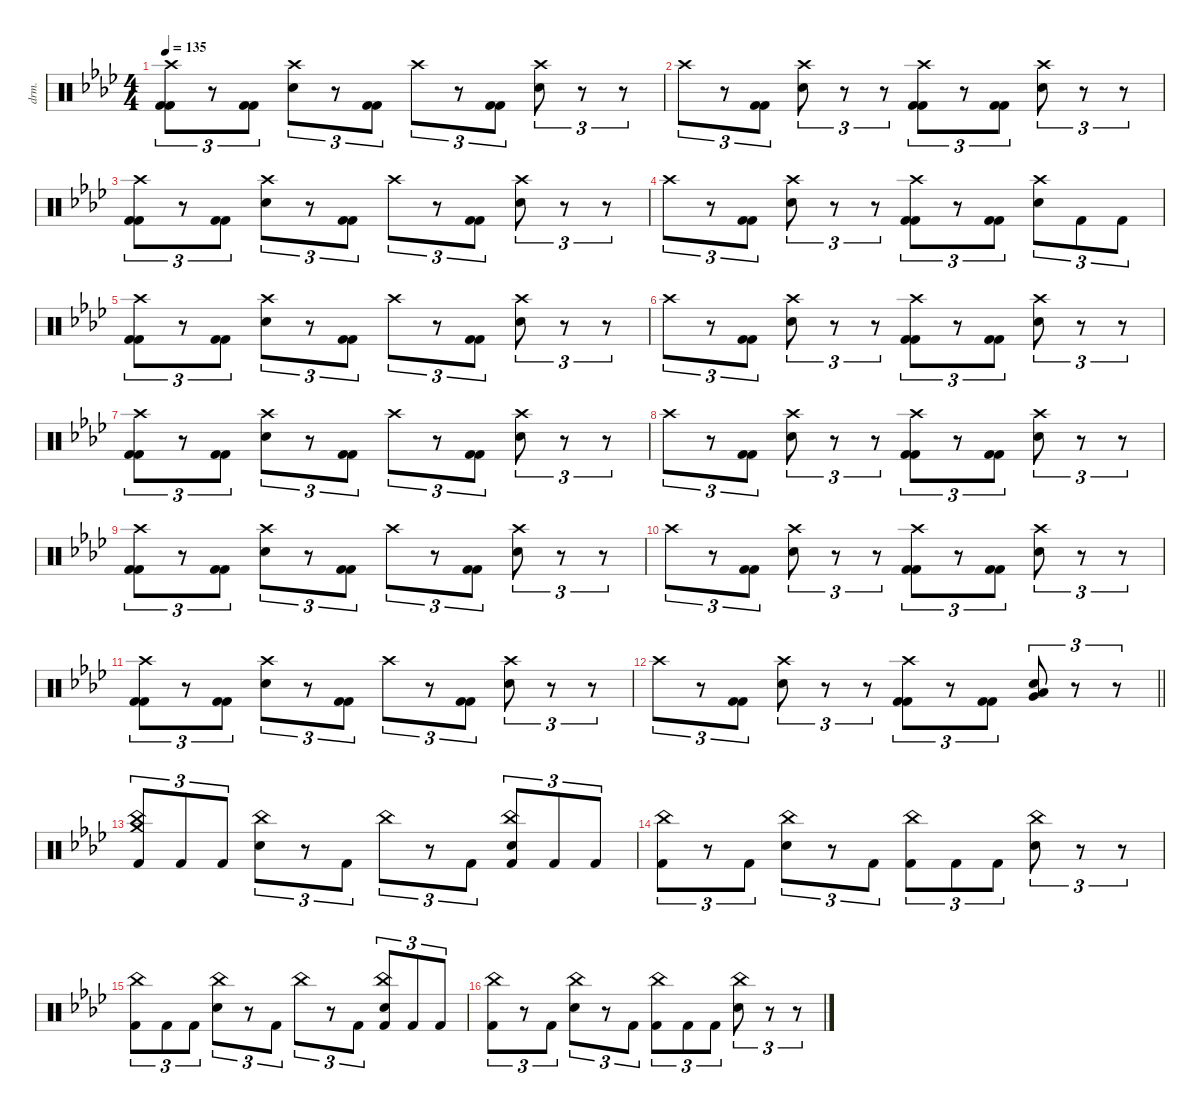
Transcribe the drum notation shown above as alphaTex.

\defaultSystemsLayout 4
\hideDynamics
\bracketExtendMode nobrackets
\otherSystemsTrackNameOrientation horizontal
\track ("Drums" "drm.") {defaultSystemsLayout 4 instrument percussion}
\staff {score}
\articulation defaults
\ts (4 4)
\tempo 135
\clef neutral
\ks ab
("Crash high (hit)"{acc forcenatural} "Kick (hit) 2"{acc forcenatural} "Kick (hit) 2"{acc forcenatural}).8{tu (3 2) dy f beam Down} r.8{tu (3 2) beam Down} ("Kick (hit) 2"{acc forcenatural} "Kick (hit) 2"{acc forcenatural}).8{tu (3 2) beam Down} ("Crash high (hit)"{acc forcenatural} "Snare (hit) 2"{acc forcenatural}).8{tu (3 2) beam Down} r.8{tu (3 2) beam Down} ("Kick (hit) 2"{acc forcenatural} "Kick (hit) 2"{acc forcenatural}).8{tu (3 2) beam Down} "Crash high (hit)"{acc forcenatural}.8{tu (3 2) beam Down} r.8{tu (3 2) beam Down} ("Kick (hit) 2"{acc forcenatural} "Kick (hit) 2"{acc forcenatural}).8{tu (3 2) beam Down} ("Crash high (hit)"{acc forcenatural} "Snare (hit) 2"{acc forcenatural}).8{tu (3 2) beam Down} r.8{tu (3 2) beam Down} r.8{tu (3 2) beam Down} |
"Crash high (hit)"{acc forcenatural}.8{tu (3 2) beam Down} r.8{tu (3 2) beam Down} ("Kick (hit) 2"{acc forcenatural} "Kick (hit) 2"{acc forcenatural}).8{tu (3 2) beam Down} ("Crash high (hit)"{acc forcenatural} "Snare (hit) 2"{acc forcenatural}).8{tu (3 2) beam Down} r.8{tu (3 2) beam Down} r.8{tu (3 2) beam Down} ("Crash high (hit)"{acc forcenatural} "Kick (hit) 2"{acc forcenatural} "Kick (hit) 2"{acc forcenatural}).8{tu (3 2) beam Down} r.8{tu (3 2) beam Down} ("Kick (hit) 2"{acc forcenatural} "Kick (hit) 2"{acc forcenatural}).8{tu (3 2) beam Down} ("Crash high (hit)"{acc forcenatural} "Snare (hit) 2"{acc forcenatural}).8{tu (3 2) beam Down} r.8{tu (3 2) beam Down} r.8{tu (3 2) beam Down} |
("Crash high (hit)"{acc forcenatural} "Kick (hit) 2"{acc forcenatural} "Kick (hit) 2"{acc forcenatural}).8{tu (3 2) beam Down} r.8{tu (3 2) beam Down} ("Kick (hit) 2"{acc forcenatural} "Kick (hit) 2"{acc forcenatural}).8{tu (3 2) beam Down} ("Crash high (hit)"{acc forcenatural} "Snare (hit) 2"{acc forcenatural}).8{tu (3 2) beam Down} r.8{tu (3 2) beam Down} ("Kick (hit) 2"{acc forcenatural} "Kick (hit) 2"{acc forcenatural}).8{tu (3 2) beam Down} "Crash high (hit)"{acc forcenatural}.8{tu (3 2) beam Down} r.8{tu (3 2) beam Down} ("Kick (hit) 2"{acc forcenatural} "Kick (hit) 2"{acc forcenatural}).8{tu (3 2) beam Down} ("Crash high (hit)"{acc forcenatural} "Snare (hit) 2"{acc forcenatural}).8{tu (3 2) beam Down} r.8{tu (3 2) beam Down} r.8{tu (3 2) beam Down} |
"Crash high (hit)"{acc forcenatural}.8{tu (3 2) beam Down} r.8{tu (3 2) beam Down} ("Kick (hit) 2"{acc forcenatural} "Kick (hit) 2"{acc forcenatural}).8{tu (3 2) beam Down} ("Crash high (hit)"{acc forcenatural} "Snare (hit) 2"{acc forcenatural}).8{tu (3 2) beam Down} r.8{tu (3 2) beam Down} r.8{tu (3 2) beam Down} ("Crash high (hit)"{acc forcenatural} "Kick (hit) 2"{acc forcenatural} "Kick (hit) 2"{acc forcenatural}).8{tu (3 2) beam Down} r.8{tu (3 2) beam Down} ("Kick (hit) 2"{acc forcenatural} "Kick (hit) 2"{acc forcenatural}).8{tu (3 2) beam Down} ("Crash high (hit)"{acc forcenatural} "Snare (hit) 2"{acc forcenatural}).8{tu (3 2) beam Down} "Kick (hit) 2"{acc forcenatural}.8{tu (3 2) beam Down} "Kick (hit) 2"{acc forcenatural}.8{tu (3 2) beam Down} |
("Crash high (hit)"{acc forcenatural} "Kick (hit) 2"{acc forcenatural} "Kick (hit) 2"{acc forcenatural}).8{tu (3 2) beam Down} r.8{tu (3 2) beam Down} ("Kick (hit) 2"{acc forcenatural} "Kick (hit) 2"{acc forcenatural}).8{tu (3 2) beam Down} ("Crash high (hit)"{acc forcenatural} "Snare (hit) 2"{acc forcenatural}).8{tu (3 2) beam Down} r.8{tu (3 2) beam Down} ("Kick (hit) 2"{acc forcenatural} "Kick (hit) 2"{acc forcenatural}).8{tu (3 2) beam Down} "Crash high (hit)"{acc forcenatural}.8{tu (3 2) beam Down} r.8{tu (3 2) beam Down} ("Kick (hit) 2"{acc forcenatural} "Kick (hit) 2"{acc forcenatural}).8{tu (3 2) beam Down} ("Crash high (hit)"{acc forcenatural} "Snare (hit) 2"{acc forcenatural}).8{tu (3 2) beam Down} r.8{tu (3 2) beam Down} r.8{tu (3 2) beam Down} |
"Crash high (hit)"{acc forcenatural}.8{tu (3 2) beam Down} r.8{tu (3 2) beam Down} ("Kick (hit) 2"{acc forcenatural} "Kick (hit) 2"{acc forcenatural}).8{tu (3 2) beam Down} ("Crash high (hit)"{acc forcenatural} "Snare (hit) 2"{acc forcenatural}).8{tu (3 2) beam Down} r.8{tu (3 2) beam Down} r.8{tu (3 2) beam Down} ("Crash high (hit)"{acc forcenatural} "Kick (hit) 2"{acc forcenatural} "Kick (hit) 2"{acc forcenatural}).8{tu (3 2) beam Down} r.8{tu (3 2) beam Down} ("Kick (hit) 2"{acc forcenatural} "Kick (hit) 2"{acc forcenatural}).8{tu (3 2) beam Down} ("Crash high (hit)"{acc forcenatural} "Snare (hit) 2"{acc forcenatural}).8{tu (3 2) beam Down} r.8{tu (3 2) beam Down} r.8{tu (3 2) beam Down} |
("Crash high (hit)"{acc forcenatural} "Kick (hit) 2"{acc forcenatural} "Kick (hit) 2"{acc forcenatural}).8{tu (3 2) beam Down} r.8{tu (3 2) beam Down} ("Kick (hit) 2"{acc forcenatural} "Kick (hit) 2"{acc forcenatural}).8{tu (3 2) beam Down} ("Crash high (hit)"{acc forcenatural} "Snare (hit) 2"{acc forcenatural}).8{tu (3 2) beam Down} r.8{tu (3 2) beam Down} ("Kick (hit) 2"{acc forcenatural} "Kick (hit) 2"{acc forcenatural}).8{tu (3 2) beam Down} "Crash high (hit)"{acc forcenatural}.8{tu (3 2) beam Down} r.8{tu (3 2) beam Down} ("Kick (hit) 2"{acc forcenatural} "Kick (hit) 2"{acc forcenatural}).8{tu (3 2) beam Down} ("Crash high (hit)"{acc forcenatural} "Snare (hit) 2"{acc forcenatural}).8{tu (3 2) beam Down} r.8{tu (3 2) beam Down} r.8{tu (3 2) beam Down} |
"Crash high (hit)"{acc forcenatural}.8{tu (3 2) beam Down} r.8{tu (3 2) beam Down} ("Kick (hit) 2"{acc forcenatural} "Kick (hit) 2"{acc forcenatural}).8{tu (3 2) beam Down} ("Crash high (hit)"{acc forcenatural} "Snare (hit) 2"{acc forcenatural}).8{tu (3 2) beam Down} r.8{tu (3 2) beam Down} r.8{tu (3 2) beam Down} ("Crash high (hit)"{acc forcenatural} "Kick (hit) 2"{acc forcenatural} "Kick (hit) 2"{acc forcenatural}).8{tu (3 2) beam Down} r.8{tu (3 2) beam Down} ("Kick (hit) 2"{acc forcenatural} "Kick (hit) 2"{acc forcenatural}).8{tu (3 2) beam Down} ("Crash high (hit)"{acc forcenatural} "Snare (hit) 2"{acc forcenatural}).8{tu (3 2) beam Down} r.8{tu (3 2) beam Down} r.8{tu (3 2) beam Down} |
("Crash high (hit)"{acc forcenatural} "Kick (hit) 2"{acc forcenatural} "Kick (hit) 2"{acc forcenatural}).8{tu (3 2) beam Down} r.8{tu (3 2) beam Down} ("Kick (hit) 2"{acc forcenatural} "Kick (hit) 2"{acc forcenatural}).8{tu (3 2) beam Down} ("Crash high (hit)"{acc forcenatural} "Snare (hit) 2"{acc forcenatural}).8{tu (3 2) beam Down} r.8{tu (3 2) beam Down} ("Kick (hit) 2"{acc forcenatural} "Kick (hit) 2"{acc forcenatural}).8{tu (3 2) beam Down} "Crash high (hit)"{acc forcenatural}.8{tu (3 2) beam Down} r.8{tu (3 2) beam Down} ("Kick (hit) 2"{acc forcenatural} "Kick (hit) 2"{acc forcenatural}).8{tu (3 2) beam Down} ("Crash high (hit)"{acc forcenatural} "Snare (hit) 2"{acc forcenatural}).8{tu (3 2) beam Down} r.8{tu (3 2) beam Down} r.8{tu (3 2) beam Down} |
"Crash high (hit)"{acc forcenatural}.8{tu (3 2) beam Down} r.8{tu (3 2) beam Down} ("Kick (hit) 2"{acc forcenatural} "Kick (hit) 2"{acc forcenatural}).8{tu (3 2) beam Down} ("Crash high (hit)"{acc forcenatural} "Snare (hit) 2"{acc forcenatural}).8{tu (3 2) beam Down} r.8{tu (3 2) beam Down} r.8{tu (3 2) beam Down} ("Crash high (hit)"{acc forcenatural} "Kick (hit) 2"{acc forcenatural} "Kick (hit) 2"{acc forcenatural}).8{tu (3 2) beam Down} r.8{tu (3 2) beam Down} ("Kick (hit) 2"{acc forcenatural} "Kick (hit) 2"{acc forcenatural}).8{tu (3 2) beam Down} ("Crash high (hit)"{acc forcenatural} "Snare (hit) 2"{acc forcenatural}).8{tu (3 2) beam Down} r.8{tu (3 2) beam Down} r.8{tu (3 2) beam Down} |
("Crash high (hit)"{acc forcenatural} "Kick (hit) 2"{acc forcenatural} "Kick (hit) 2"{acc forcenatural}).8{tu (3 2) beam Down} r.8{tu (3 2) beam Down} ("Kick (hit) 2"{acc forcenatural} "Kick (hit) 2"{acc forcenatural}).8{tu (3 2) beam Down} ("Crash high (hit)"{acc forcenatural} "Snare (hit) 2"{acc forcenatural}).8{tu (3 2) beam Down} r.8{tu (3 2) beam Down} ("Kick (hit) 2"{acc forcenatural} "Kick (hit) 2"{acc forcenatural}).8{tu (3 2) beam Down} "Crash high (hit)"{acc forcenatural}.8{tu (3 2) beam Down} r.8{tu (3 2) beam Down} ("Kick (hit) 2"{acc forcenatural} "Kick (hit) 2"{acc forcenatural}).8{tu (3 2) beam Down} ("Crash high (hit)"{acc forcenatural} "Snare (hit) 2"{acc forcenatural}).8{tu (3 2) beam Down} r.8{tu (3 2) beam Down} r.8{tu (3 2) beam Down} |
\barLineRight lightlight "Crash high (hit)"{acc forcenatural}.8{tu (3 2) beam Down}
r.8{tu (3 2) beam Down} ("Kick (hit) 2"{acc forcenatural} "Kick (hit) 2"{acc forcenatural}).8{tu (3 2) beam Down} ("Crash high (hit)"{acc forcenatural} "Snare (hit) 2"{acc forcenatural}).8{tu (3 2) beam Down} r.8{tu (3 2) beam Down} r.8{tu (3 2) beam Down} ("Crash high (hit)"{acc forcenatural} "Kick (hit) 2"{acc forcenatural} "Kick (hit) 2"{acc forcenatural}).8{tu (3 2) beam Down} r.8{tu (3 2) beam Down} ("Kick (hit) 2"{acc forcenatural} "Kick (hit) 2"{acc forcenatural}).8{tu (3 2) beam Down} ("Snare (hit) 2"{acc forcenatural} "Very Low Tom (hit)"{acc forcenatural} "Low Floor Tom (hit)"{acc forcenatural}).8{tu (3 2) beam Up} r.8{tu (3 2) beam Up} r.8{tu (3 2) beam Up} |
("Crash medium (hit)"{acc forcenatural} "China (hit)"{acc forcenatural} "Kick (hit) 2"{acc forcenatural}).8{tu (3 2) beam Up} "Kick (hit) 2"{acc forcenatural}.8{tu (3 2) beam Up} "Kick (hit) 2"{acc forcenatural}.8{tu (3 2) beam Up} ("China (hit)"{acc forcenatural} "Snare (hit) 2"{acc forcenatural}).8{tu (3 2) beam Down} r.8{tu (3 2) beam Down} "Kick (hit) 2"{acc forcenatural}.8{tu (3 2) beam Down} "China (hit)"{acc forcenatural}.8{tu (3 2) beam Down} r.8{tu (3 2) beam Down} "Kick (hit) 2"{acc forcenatural}.8{tu (3 2) beam Down} ("China (hit)"{acc forcenatural} "Snare (hit) 2"{acc forcenatural} "Kick (hit) 2"{acc forcenatural}).8{tu (3 2) beam Up} "Kick (hit) 2"{acc forcenatural}.8{tu (3 2) beam Up} "Kick (hit) 2"{acc forcenatural}.8{tu (3 2) beam Up} |
("China (hit)"{acc forcenatural} "Kick (hit) 2"{acc forcenatural}).8{tu (3 2) beam Down} r.8{tu (3 2) beam Down} "Kick (hit) 2"{acc forcenatural}.8{tu (3 2) beam Down} ("China (hit)"{acc forcenatural} "Snare (hit) 2"{acc forcenatural}).8{tu (3 2) beam Down} r.8{tu (3 2) beam Down} "Kick (hit) 2"{acc forcenatural}.8{tu (3 2) beam Down} ("China (hit)"{acc forcenatural} "Kick (hit) 2"{acc forcenatural}).8{tu (3 2) beam Down} "Kick (hit) 2"{acc forcenatural}.8{tu (3 2) beam Down} "Kick (hit) 2"{acc forcenatural}.8{tu (3 2) beam Down} ("China (hit)"{acc forcenatural} "Snare (hit) 2"{acc forcenatural}).8{tu (3 2) beam Down} r.8{tu (3 2) beam Down} r.8{tu (3 2) beam Down} |
("China (hit)"{acc forcenatural} "Kick (hit) 2"{acc forcenatural}).8{tu (3 2) beam Down} "Kick (hit) 2"{acc forcenatural}.8{tu (3 2) beam Down} "Kick (hit) 2"{acc forcenatural}.8{tu (3 2) beam Down} ("China (hit)"{acc forcenatural} "Snare (hit) 2"{acc forcenatural}).8{tu (3 2) beam Down} r.8{tu (3 2) beam Down} "Kick (hit) 2"{acc forcenatural}.8{tu (3 2) beam Down} "China (hit)"{acc forcenatural}.8{tu (3 2) beam Down} r.8{tu (3 2) beam Down} "Kick (hit) 2"{acc forcenatural}.8{tu (3 2) beam Down} ("China (hit)"{acc forcenatural} "Snare (hit) 2"{acc forcenatural} "Kick (hit) 2"{acc forcenatural}).8{tu (3 2) beam Up} "Kick (hit) 2"{acc forcenatural}.8{tu (3 2) beam Up} "Kick (hit) 2"{acc forcenatural}.8{tu (3 2) beam Up} |
("China (hit)"{acc forcenatural} "Kick (hit) 2"{acc forcenatural}).8{tu (3 2) beam Down} r.8{tu (3 2) beam Down} "Kick (hit) 2"{acc forcenatural}.8{tu (3 2) beam Down} ("China (hit)"{acc forcenatural} "Snare (hit) 2"{acc forcenatural}).8{tu (3 2) beam Down} r.8{tu (3 2) beam Down} "Kick (hit) 2"{acc forcenatural}.8{tu (3 2) beam Down} ("China (hit)"{acc forcenatural} "Kick (hit) 2"{acc forcenatural}).8{tu (3 2) beam Down} "Kick (hit) 2"{acc forcenatural}.8{tu (3 2) beam Down} "Kick (hit) 2"{acc forcenatural}.8{tu (3 2) beam Down} ("China (hit)"{acc forcenatural} "Snare (hit) 2"{acc forcenatural}).8{tu (3 2) beam Down} r.8{tu (3 2) beam Down} r.8{tu (3 2) beam Down}
